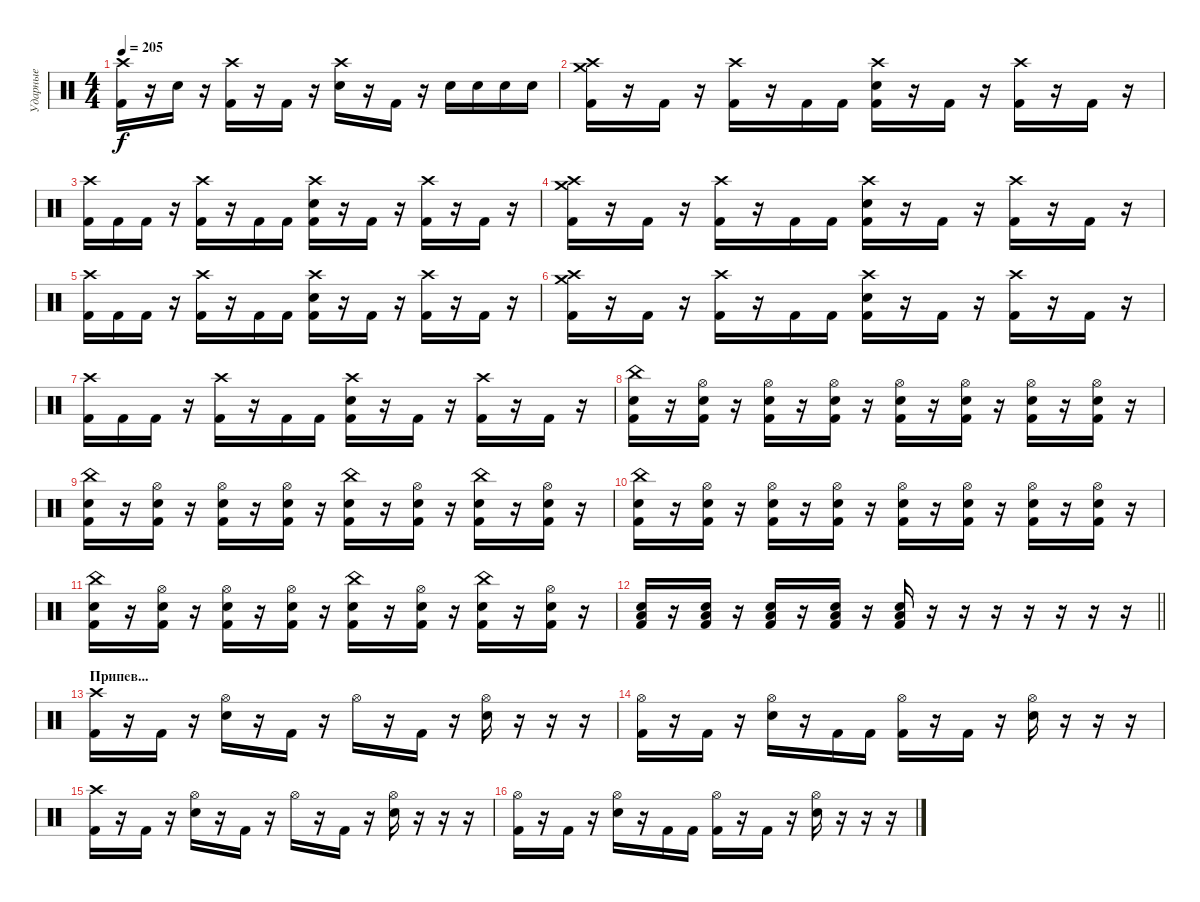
\track ("Ударные" "Ударные") {instrument percussion}
\staff {score}
\articulation defaults
\ts (4 4)
\tempo 205
\clef neutral
\ks c
("Crash high (hit)" "Kick (hit) 2").16{dy f} r.16 "Electric Snare (hit)".16 r.16 ("Crash high (hit)" "Kick (hit) 2").16 r.16 "Kick (hit) 2".16 r.16 ("Crash high (hit)" "Electric Snare (hit)").16 r.16 "Kick (hit) 2".16 r.16 "Electric Snare (hit)".16 "Electric Snare (hit)".16 "Electric Snare (hit)".16 "Electric Snare (hit)".16 |
("Crash high (hit)" "Crash medium (hit)" "Kick (hit) 2").16 r.16 "Kick (hit) 2".16 r.16 ("Crash high (hit)" "Kick (hit) 2").16 r.16 "Kick (hit) 2".16 "Kick (hit) 2".16 ("Crash high (hit)" "Electric Snare (hit)" "Kick (hit) 2").16 r.16 "Kick (hit) 2".16 r.16 ("Crash high (hit)" "Kick (hit) 2").16 r.16 "Kick (hit) 2".16 r.16 |
("Crash high (hit)" "Kick (hit) 2").16 "Kick (hit) 2".16 "Kick (hit) 2".16 r.16 ("Crash high (hit)" "Kick (hit) 2").16 r.16 "Kick (hit) 2".16 "Kick (hit) 2".16 ("Crash high (hit)" "Electric Snare (hit)" "Kick (hit) 2").16 r.16 "Kick (hit) 2".16 r.16 ("Crash high (hit)" "Kick (hit) 2").16 r.16 "Kick (hit) 2".16 r.16 |
("Crash high (hit)" "Crash medium (hit)" "Kick (hit) 2").16 r.16 "Kick (hit) 2".16 r.16 ("Crash high (hit)" "Kick (hit) 2").16 r.16 "Kick (hit) 2".16 "Kick (hit) 2".16 ("Crash high (hit)" "Electric Snare (hit)" "Kick (hit) 2").16 r.16 "Kick (hit) 2".16 r.16 ("Crash high (hit)" "Kick (hit) 2").16 r.16 "Kick (hit) 2".16 r.16 |
("Crash high (hit)" "Kick (hit) 2").16 "Kick (hit) 2".16 "Kick (hit) 2".16 r.16 ("Crash high (hit)" "Kick (hit) 2").16 r.16 "Kick (hit) 2".16 "Kick (hit) 2".16 ("Crash high (hit)" "Electric Snare (hit)" "Kick (hit) 2").16 r.16 "Kick (hit) 2".16 r.16 ("Crash high (hit)" "Kick (hit) 2").16 r.16 "Kick (hit) 2".16 r.16 |
("Crash high (hit)" "Crash medium (hit)" "Kick (hit) 2").16 r.16 "Kick (hit) 2".16 r.16 ("Crash high (hit)" "Kick (hit) 2").16 r.16 "Kick (hit) 2".16 "Kick (hit) 2".16 ("Crash high (hit)" "Electric Snare (hit)" "Kick (hit) 2").16 r.16 "Kick (hit) 2".16 r.16 ("Crash high (hit)" "Kick (hit) 2").16 r.16 "Kick (hit) 2".16 r.16 |
("Crash high (hit)" "Kick (hit) 2").16 "Kick (hit) 2".16 "Kick (hit) 2".16 r.16 ("Crash high (hit)" "Kick (hit) 2").16 r.16 "Kick (hit) 2".16 "Kick (hit) 2".16 ("Crash high (hit)" "Electric Snare (hit)" "Kick (hit) 2").16 r.16 "Kick (hit) 2".16 r.16 ("Crash high (hit)" "Kick (hit) 2").16 r.16 "Kick (hit) 2".16 r.16 |
("China (hit)" "Electric Snare (hit)" "Kick (hit) 2").16 r.16 ("Hi-Hat (open)" "Electric Snare (hit)" "Kick (hit) 2").16 r.16 ("Hi-Hat (open)" "Electric Snare (hit)" "Kick (hit) 2").16 r.16 ("Hi-Hat (open)" "Electric Snare (hit)" "Kick (hit) 2").16 r.16 ("Hi-Hat (open)" "Electric Snare (hit)" "Kick (hit) 2").16 r.16 ("Hi-Hat (open)" "Electric Snare (hit)" "Kick (hit) 2").16 r.16 ("Hi-Hat (open)" "Electric Snare (hit)" "Kick (hit) 2").16 r.16 ("Hi-Hat (open)" "Electric Snare (hit)" "Kick (hit) 2").16 r.16 |
("China (hit)" "Electric Snare (hit)" "Kick (hit) 2").16 r.16 ("Hi-Hat (open)" "Electric Snare (hit)" "Kick (hit) 2").16 r.16 ("Hi-Hat (open)" "Electric Snare (hit)" "Kick (hit) 2").16 r.16 ("Hi-Hat (open)" "Electric Snare (hit)" "Kick (hit) 2").16 r.16 ("China (hit)" "Electric Snare (hit)" "Kick (hit) 2").16 r.16 ("Hi-Hat (open)" "Electric Snare (hit)" "Kick (hit) 2").16 r.16 ("China (hit)" "Electric Snare (hit)" "Kick (hit) 2").16 r.16 ("Hi-Hat (open)" "Electric Snare (hit)" "Kick (hit) 2").16 r.16 |
("China (hit)" "Electric Snare (hit)" "Kick (hit) 2").16 r.16 ("Hi-Hat (open)" "Electric Snare (hit)" "Kick (hit) 2").16 r.16 ("Hi-Hat (open)" "Electric Snare (hit)" "Kick (hit) 2").16 r.16 ("Hi-Hat (open)" "Electric Snare (hit)" "Kick (hit) 2").16 r.16 ("Hi-Hat (open)" "Electric Snare (hit)" "Kick (hit) 2").16 r.16 ("Hi-Hat (open)" "Electric Snare (hit)" "Kick (hit) 2").16 r.16 ("Hi-Hat (open)" "Electric Snare (hit)" "Kick (hit) 2").16 r.16 ("Hi-Hat (open)" "Electric Snare (hit)" "Kick (hit) 2").16 r.16 |
("China (hit)" "Electric Snare (hit)" "Kick (hit) 2").16 r.16 ("Hi-Hat (open)" "Electric Snare (hit)" "Kick (hit) 2").16 r.16 ("Hi-Hat (open)" "Electric Snare (hit)" "Kick (hit) 2").16 r.16 ("Hi-Hat (open)" "Electric Snare (hit)" "Kick (hit) 2").16 r.16 ("China (hit)" "Electric Snare (hit)" "Kick (hit) 2").16 r.16 ("Hi-Hat (open)" "Electric Snare (hit)" "Kick (hit) 2").16 r.16 ("China (hit)" "Electric Snare (hit)" "Kick (hit) 2").16 r.16 ("Hi-Hat (open)" "Electric Snare (hit)" "Kick (hit) 2").16 r.16 |
\barLineRight lightlight
("Low Floor Tom (hit)" "Electric Snare (hit)" "Kick (hit) 2").16 r.16 ("Low Floor Tom (hit)" "Electric Snare (hit)" "Kick (hit) 2").16 r.16 ("Low Floor Tom (hit)" "Electric Snare (hit)" "Kick (hit) 2").16 r.16 ("Low Floor Tom (hit)" "Electric Snare (hit)" "Kick (hit) 2").16 r.16 ("Low Floor Tom (hit)" "Electric Snare (hit)" "Kick (hit) 2").16 r.16 r.16 r.16 r.16 r.16 r.16 r.16 |
\section ("" "Припев...")
("Crash high (hit)" "Kick (hit) 2").16 r.16 "Kick (hit) 2".16 r.16 ("Hi-Hat (open)" "Electric Snare (hit)").16 r.16 "Kick (hit) 2".16 r.16 "Hi-Hat (open)".16 r.16 "Kick (hit) 2".16 r.16 ("Hi-Hat (open)" "Electric Snare (hit)").16 r.16 r.16 r.16 |
("Hi-Hat (open)" "Kick (hit) 2").16 r.16 "Kick (hit) 2".16 r.16 ("Hi-Hat (open)" "Electric Snare (hit)").16 r.16 "Kick (hit) 2".16 "Kick (hit) 2".16 ("Hi-Hat (open)" "Kick (hit) 2").16 r.16 "Kick (hit) 2".16 r.16 ("Hi-Hat (open)" "Electric Snare (hit)").16 r.16 r.16 r.16 |
("Crash high (hit)" "Kick (hit) 2").16 r.16 "Kick (hit) 2".16 r.16 ("Hi-Hat (open)" "Electric Snare (hit)").16 r.16 "Kick (hit) 2".16 r.16 "Hi-Hat (open)".16 r.16 "Kick (hit) 2".16 r.16 ("Hi-Hat (open)" "Electric Snare (hit)").16 r.16 r.16 r.16 |
("Hi-Hat (open)" "Kick (hit) 2").16 r.16 "Kick (hit) 2".16 r.16 ("Hi-Hat (open)" "Electric Snare (hit)").16 r.16 "Kick (hit) 2".16 "Kick (hit) 2".16 ("Hi-Hat (open)" "Kick (hit) 2").16 r.16 "Kick (hit) 2".16 r.16 ("Hi-Hat (open)" "Electric Snare (hit)").16 r.16 r.16 r.16
